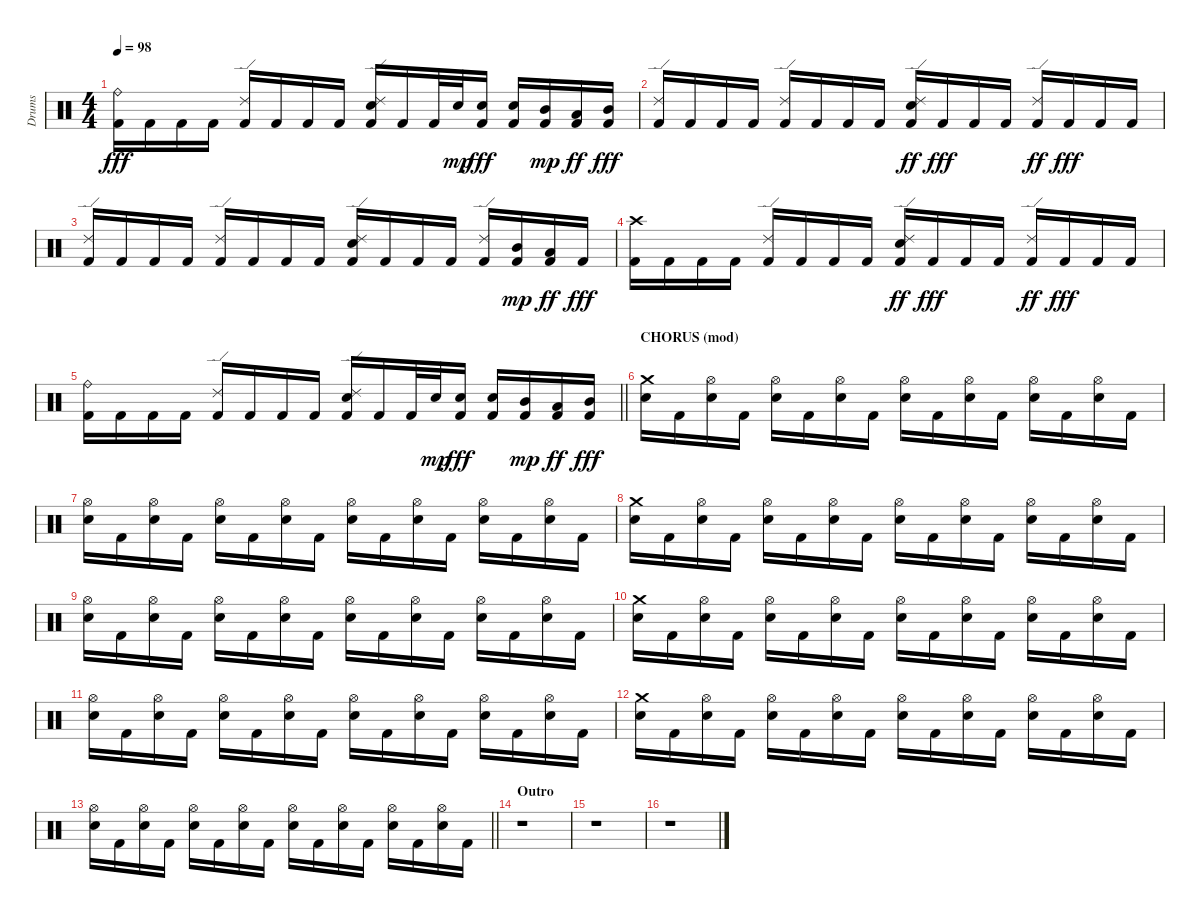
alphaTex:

\track ("Drums" "Drums") {instrument percussion}
\staff {score}
\articulation defaults
\ts (4 4)
\tempo 98
\clef neutral
\ks c
("Kick (hit) 2" "Ride (bell)").16{dy fff} "Kick (hit) 2".16 "Kick (hit) 2".16 "Kick (hit) 2".16 ("Kick (hit) 2" "Ride (edge) 2").16 "Kick (hit) 2".16 "Kick (hit) 2".16 "Kick (hit) 2".16 ("Kick (hit) 2" "Snare (hit) 2" "Ride (edge) 2").16 "Kick (hit) 2".16 "Kick (hit) 2".32 "Snare (hit) 2".32{dy mp} ("Kick (hit) 2" "Snare (hit) 2").16{dy fff} ("Kick (hit) 2" "Snare (hit) 2").16 ("Kick (hit) 2" "Mid Tom (hit)").16{dy mp} ("Kick (hit) 2" "Low Tom (hit)").16{dy ff} ("Kick (hit) 2" "Mid Tom (hit)").16{dy fff} |
("Kick (hit) 2" "Ride (edge) 2").16 "Kick (hit) 2".16 "Kick (hit) 2".16 "Kick (hit) 2".16 ("Kick (hit) 2" "Ride (edge) 2").16 "Kick (hit) 2".16 "Kick (hit) 2".16 "Kick (hit) 2".16 ("Kick (hit) 2" "Snare (hit) 2" "Ride (edge) 2").16{dy ff} "Kick (hit) 2".16{dy fff} "Kick (hit) 2".16 "Kick (hit) 2".16 ("Kick (hit) 2" "Ride (edge) 2").16{dy ff} "Kick (hit) 2".16{dy fff} "Kick (hit) 2".16 "Kick (hit) 2".16 |
("Kick (hit) 2" "Ride (edge) 2").16 "Kick (hit) 2".16 "Kick (hit) 2".16 "Kick (hit) 2".16 ("Kick (hit) 2" "Ride (edge) 2").16 "Kick (hit) 2".16 "Kick (hit) 2".16 "Kick (hit) 2".16 ("Kick (hit) 2" "Snare (hit) 2" "Ride (edge) 2").16 "Kick (hit) 2".16 "Kick (hit) 2".16 "Kick (hit) 2".16 ("Kick (hit) 2" "Ride (edge) 2").16 ("Kick (hit) 2" "Mid Tom (hit)").16{dy mp} ("Kick (hit) 2" "Low Tom (hit)").16{dy ff} "Kick (hit) 2".16{dy fff} |
("Kick (hit) 2" "Crash high (hit)").16 "Kick (hit) 2".16 "Kick (hit) 2".16 "Kick (hit) 2".16 ("Kick (hit) 2" "Ride (edge) 2").16 "Kick (hit) 2".16 "Kick (hit) 2".16 "Kick (hit) 2".16 ("Kick (hit) 2" "Snare (hit) 2" "Ride (edge) 2").16{dy ff} "Kick (hit) 2".16{dy fff} "Kick (hit) 2".16 "Kick (hit) 2".16 ("Kick (hit) 2" "Ride (edge) 2").16{dy ff} "Kick (hit) 2".16{dy fff} "Kick (hit) 2".16 "Kick (hit) 2".16 |
\barLineRight lightlight
("Kick (hit) 2" "Ride (bell)").16 "Kick (hit) 2".16 "Kick (hit) 2".16 "Kick (hit) 2".16 ("Kick (hit) 2" "Ride (edge) 2").16 "Kick (hit) 2".16 "Kick (hit) 2".16 "Kick (hit) 2".16 ("Kick (hit) 2" "Snare (hit) 2" "Ride (edge) 2").16 "Kick (hit) 2".16 "Kick (hit) 2".32 "Snare (hit) 2".32{dy mp} ("Kick (hit) 2" "Snare (hit) 2").16{dy fff} ("Kick (hit) 2" "Snare (hit) 2").16 ("Kick (hit) 2" "Mid Tom (hit)").16{dy mp} ("Kick (hit) 2" "Low Tom (hit)").16{dy ff} ("Kick (hit) 2" "Mid Tom (hit)").16{dy fff} |
\section ("" "CHORUS (mod)")
("Snare (hit) 2" "Crash medium (hit)").16 "Kick (hit) 2".16 ("Snare (hit) 2" "Hi-Hat (open)").16 "Kick (hit) 2".16 ("Snare (hit) 2" "Hi-Hat (open)").16 "Kick (hit) 2".16 ("Snare (hit) 2" "Hi-Hat (open)").16 "Kick (hit) 2".16 ("Snare (hit) 2" "Hi-Hat (open)").16 "Kick (hit) 2".16 ("Snare (hit) 2" "Hi-Hat (open)").16 "Kick (hit) 2".16 ("Snare (hit) 2" "Hi-Hat (open)").16 "Kick (hit) 2".16 ("Snare (hit) 2" "Hi-Hat (open)").16 "Kick (hit) 2".16 |
("Snare (hit) 2" "Hi-Hat (open)").16 "Kick (hit) 2".16 ("Snare (hit) 2" "Hi-Hat (open)").16 "Kick (hit) 2".16 ("Snare (hit) 2" "Hi-Hat (open)").16 "Kick (hit) 2".16 ("Snare (hit) 2" "Hi-Hat (open)").16 "Kick (hit) 2".16 ("Snare (hit) 2" "Hi-Hat (open)").16 "Kick (hit) 2".16 ("Snare (hit) 2" "Hi-Hat (open)").16 "Kick (hit) 2".16 ("Snare (hit) 2" "Hi-Hat (open)").16 "Kick (hit) 2".16 ("Snare (hit) 2" "Hi-Hat (open)").16 "Kick (hit) 2".16 |
("Snare (hit) 2" "Crash medium (hit)").16 "Kick (hit) 2".16 ("Snare (hit) 2" "Hi-Hat (open)").16 "Kick (hit) 2".16 ("Snare (hit) 2" "Hi-Hat (open)").16 "Kick (hit) 2".16 ("Snare (hit) 2" "Hi-Hat (open)").16 "Kick (hit) 2".16 ("Snare (hit) 2" "Hi-Hat (open)").16 "Kick (hit) 2".16 ("Snare (hit) 2" "Hi-Hat (open)").16 "Kick (hit) 2".16 ("Snare (hit) 2" "Hi-Hat (open)").16 "Kick (hit) 2".16 ("Snare (hit) 2" "Hi-Hat (open)").16 "Kick (hit) 2".16 |
("Snare (hit) 2" "Hi-Hat (open)").16 "Kick (hit) 2".16 ("Snare (hit) 2" "Hi-Hat (open)").16 "Kick (hit) 2".16 ("Snare (hit) 2" "Hi-Hat (open)").16 "Kick (hit) 2".16 ("Snare (hit) 2" "Hi-Hat (open)").16 "Kick (hit) 2".16 ("Snare (hit) 2" "Hi-Hat (open)").16 "Kick (hit) 2".16 ("Snare (hit) 2" "Hi-Hat (open)").16 "Kick (hit) 2".16 ("Snare (hit) 2" "Hi-Hat (open)").16 "Kick (hit) 2".16 ("Snare (hit) 2" "Hi-Hat (open)").16 "Kick (hit) 2".16 |
("Snare (hit) 2" "Crash medium (hit)").16 "Kick (hit) 2".16 ("Snare (hit) 2" "Hi-Hat (open)").16 "Kick (hit) 2".16 ("Snare (hit) 2" "Hi-Hat (open)").16 "Kick (hit) 2".16 ("Snare (hit) 2" "Hi-Hat (open)").16 "Kick (hit) 2".16 ("Snare (hit) 2" "Hi-Hat (open)").16 "Kick (hit) 2".16 ("Snare (hit) 2" "Hi-Hat (open)").16 "Kick (hit) 2".16 ("Snare (hit) 2" "Hi-Hat (open)").16 "Kick (hit) 2".16 ("Snare (hit) 2" "Hi-Hat (open)").16 "Kick (hit) 2".16 |
("Snare (hit) 2" "Hi-Hat (open)").16 "Kick (hit) 2".16 ("Snare (hit) 2" "Hi-Hat (open)").16 "Kick (hit) 2".16 ("Snare (hit) 2" "Hi-Hat (open)").16 "Kick (hit) 2".16 ("Snare (hit) 2" "Hi-Hat (open)").16 "Kick (hit) 2".16 ("Snare (hit) 2" "Hi-Hat (open)").16 "Kick (hit) 2".16 ("Snare (hit) 2" "Hi-Hat (open)").16 "Kick (hit) 2".16 ("Snare (hit) 2" "Hi-Hat (open)").16 "Kick (hit) 2".16 ("Snare (hit) 2" "Hi-Hat (open)").16 "Kick (hit) 2".16 |
("Snare (hit) 2" "Crash medium (hit)").16 "Kick (hit) 2".16 ("Snare (hit) 2" "Hi-Hat (open)").16 "Kick (hit) 2".16 ("Snare (hit) 2" "Hi-Hat (open)").16 "Kick (hit) 2".16 ("Snare (hit) 2" "Hi-Hat (open)").16 "Kick (hit) 2".16 ("Snare (hit) 2" "Hi-Hat (open)").16 "Kick (hit) 2".16 ("Snare (hit) 2" "Hi-Hat (open)").16 "Kick (hit) 2".16 ("Snare (hit) 2" "Hi-Hat (open)").16 "Kick (hit) 2".16 ("Snare (hit) 2" "Hi-Hat (open)").16 "Kick (hit) 2".16 |
\barLineRight lightlight
("Snare (hit) 2" "Hi-Hat (open)").16 "Kick (hit) 2".16 ("Snare (hit) 2" "Hi-Hat (open)").16 "Kick (hit) 2".16 ("Snare (hit) 2" "Hi-Hat (open)").16 "Kick (hit) 2".16 ("Snare (hit) 2" "Hi-Hat (open)").16 "Kick (hit) 2".16 ("Snare (hit) 2" "Hi-Hat (open)").16 "Kick (hit) 2".16 ("Snare (hit) 2" "Hi-Hat (open)").16 "Kick (hit) 2".16 ("Snare (hit) 2" "Hi-Hat (open)").16 "Kick (hit) 2".16 ("Snare (hit) 2" "Hi-Hat (open)").16 "Kick (hit) 2".16 |
\section ("" "Outro")
r.1 |
r.1 |
r.1
